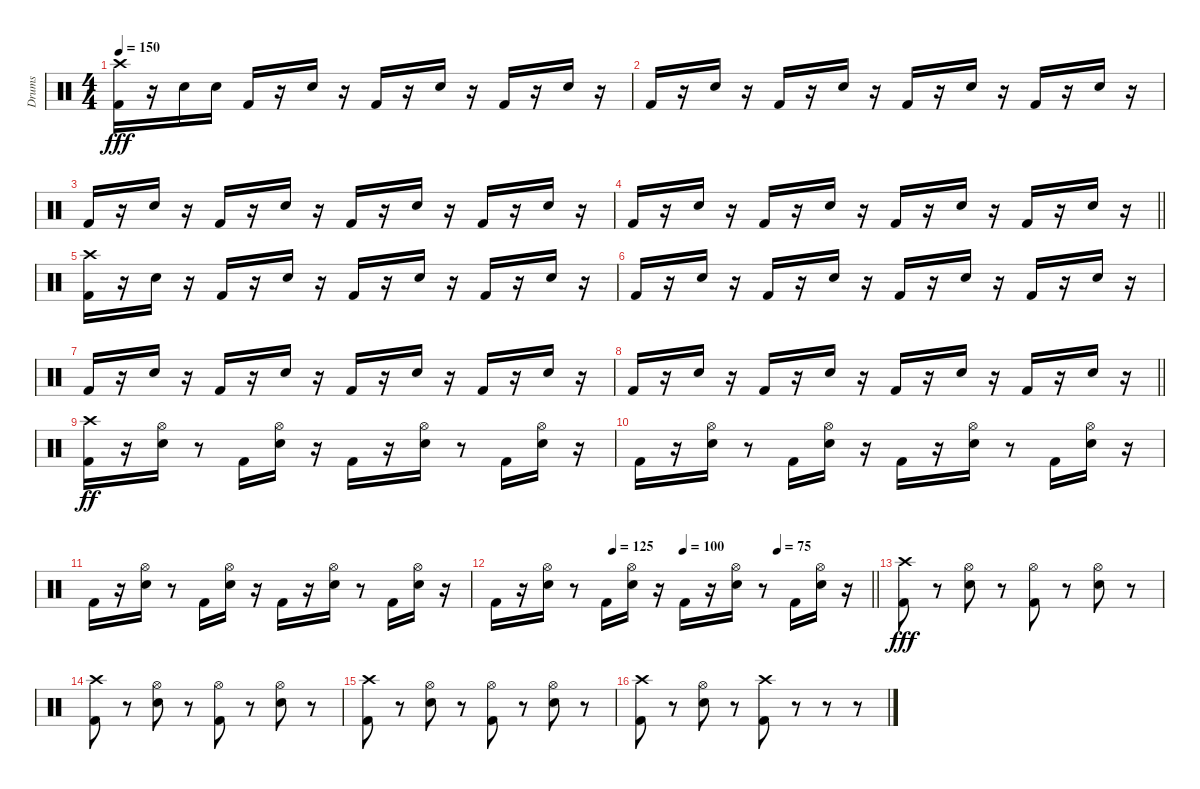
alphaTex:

\track ("Drums" "Drums") {instrument percussion}
\staff {score}
\articulation defaults
\ts (4 4)
\tempo 150
\clef neutral
\ks c
("Crash high (hit)" "Kick (hit) 2").16{dy fff} r.16 "Snare (hit) 2".16 "Snare (hit) 2".16 "Kick (hit) 2".16 r.16 "Snare (hit) 2".16 r.16 "Kick (hit) 2".16 r.16 "Snare (hit) 2".16 r.16 "Kick (hit) 2".16 r.16 "Snare (hit) 2".16 r.16 |
"Kick (hit) 2".16 r.16 "Snare (hit) 2".16 r.16 "Kick (hit) 2".16 r.16 "Snare (hit) 2".16 r.16 "Kick (hit) 2".16 r.16 "Snare (hit) 2".16 r.16 "Kick (hit) 2".16 r.16 "Snare (hit) 2".16 r.16 |
"Kick (hit) 2".16 r.16 "Snare (hit) 2".16 r.16 "Kick (hit) 2".16 r.16 "Snare (hit) 2".16 r.16 "Kick (hit) 2".16 r.16 "Snare (hit) 2".16 r.16 "Kick (hit) 2".16 r.16 "Snare (hit) 2".16 r.16 |
\barLineRight lightlight "Kick (hit) 2".16
r.16 "Snare (hit) 2".16 r.16 "Kick (hit) 2".16 r.16 "Snare (hit) 2".16 r.16 "Kick (hit) 2".16 r.16 "Snare (hit) 2".16 r.16 "Kick (hit) 2".16 r.16 "Snare (hit) 2".16 r.16 |
("Crash high (hit)" "Kick (hit) 2").16 r.16 "Snare (hit) 2".16 r.16 "Kick (hit) 2".16 r.16 "Snare (hit) 2".16 r.16 "Kick (hit) 2".16 r.16 "Snare (hit) 2".16 r.16 "Kick (hit) 2".16 r.16 "Snare (hit) 2".16 r.16 |
"Kick (hit) 2".16 r.16 "Snare (hit) 2".16 r.16 "Kick (hit) 2".16 r.16 "Snare (hit) 2".16 r.16 "Kick (hit) 2".16 r.16 "Snare (hit) 2".16 r.16 "Kick (hit) 2".16 r.16 "Snare (hit) 2".16 r.16 |
"Kick (hit) 2".16 r.16 "Snare (hit) 2".16 r.16 "Kick (hit) 2".16 r.16 "Snare (hit) 2".16 r.16 "Kick (hit) 2".16 r.16 "Snare (hit) 2".16 r.16 "Kick (hit) 2".16 r.16 "Snare (hit) 2".16 r.16 |
\barLineRight lightlight "Kick (hit) 2".16
r.16 "Snare (hit) 2".16 r.16 "Kick (hit) 2".16 r.16 "Snare (hit) 2".16 r.16 "Kick (hit) 2".16 r.16 "Snare (hit) 2".16 r.16 "Kick (hit) 2".16 r.16 "Snare (hit) 2".16 r.16 |
("Crash high (hit)" "Kick (hit) 2").16{dy ff} r.16 ("Hi-Hat (open)" "Snare (hit) 2").16 r.8 "Kick (hit) 2".16 ("Hi-Hat (open)" "Snare (hit) 2").16 r.16 "Kick (hit) 2".16 r.16 ("Hi-Hat (open)" "Snare (hit) 2").16 r.8 "Kick (hit) 2".16 ("Hi-Hat (open)" "Snare (hit) 2").16 r.16 |
"Kick (hit) 2".16 r.16 ("Hi-Hat (open)" "Snare (hit) 2").16 r.8 "Kick (hit) 2".16 ("Hi-Hat (open)" "Snare (hit) 2").16 r.16 "Kick (hit) 2".16 r.16 ("Hi-Hat (open)" "Snare (hit) 2").16 r.8 "Kick (hit) 2".16 ("Hi-Hat (open)" "Snare (hit) 2").16 r.16 |
"Kick (hit) 2".16 r.16 ("Hi-Hat (open)" "Snare (hit) 2").16 r.8 "Kick (hit) 2".16 ("Hi-Hat (open)" "Snare (hit) 2").16 r.16 "Kick (hit) 2".16 r.16 ("Hi-Hat (open)" "Snare (hit) 2").16 r.8 "Kick (hit) 2".16 ("Hi-Hat (open)" "Snare (hit) 2").16 r.16 |
\tempo (125 0.3125)
\tempo (100 0.5)
\tempo (75 0.75)
\barLineRight lightlight "Kick (hit) 2".16
r.16 ("Hi-Hat (open)" "Snare (hit) 2").16 r.8 "Kick (hit) 2".16 ("Hi-Hat (open)" "Snare (hit) 2").16 r.16 "Kick (hit) 2".16 r.16 ("Hi-Hat (open)" "Snare (hit) 2").16 r.8 "Kick (hit) 2".16 ("Hi-Hat (open)" "Snare (hit) 2").16 r.16 |
("Crash high (hit)" "Kick (hit) 2").8{dy fff} r.8 ("Hi-Hat (open)" "Snare (hit) 2").8 r.8 ("Hi-Hat (open)" "Kick (hit) 2").8 r.8 ("Hi-Hat (open)" "Snare (hit) 2").8 r.8 |
("Crash high (hit)" "Kick (hit) 2").8 r.8 ("Hi-Hat (open)" "Snare (hit) 2").8 r.8 ("Hi-Hat (open)" "Kick (hit) 2").8 r.8 ("Hi-Hat (open)" "Snare (hit) 2").8 r.8 |
("Crash high (hit)" "Kick (hit) 2").8 r.8 ("Hi-Hat (open)" "Snare (hit) 2").8 r.8 ("Hi-Hat (open)" "Kick (hit) 2").8 r.8 ("Hi-Hat (open)" "Snare (hit) 2").8 r.8 |
("Crash high (hit)" "Kick (hit) 2").8 r.8 ("Hi-Hat (open)" "Snare (hit) 2").8 r.8 ("Crash high (hit)" "Kick (hit) 2").8 r.8 r.8 r.8
